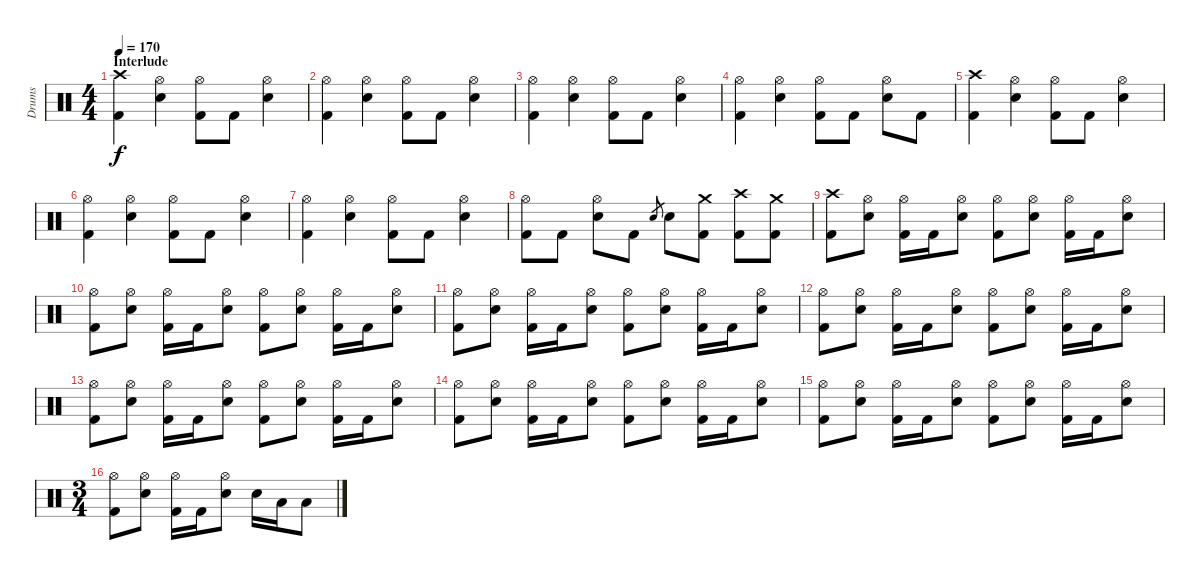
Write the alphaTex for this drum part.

\track ("Drums" "Drums") {instrument percussion}
\staff {score}
\articulation defaults
\ts (4 4)
\section ("" "Interlude")
\tempo 170
\clef neutral
\ks c
("Crash high (hit)" "Kick (hit) 2").4{dy f} ("Hi-Hat (open)" "Electric Snare (hit)").4 ("Hi-Hat (open)" "Kick (hit) 2").8 "Kick (hit) 2".8 ("Hi-Hat (open)" "Electric Snare (hit)").4 |
("Hi-Hat (open)" "Kick (hit) 2").4 ("Hi-Hat (open)" "Electric Snare (hit)").4 ("Hi-Hat (open)" "Kick (hit) 2").8 "Kick (hit) 2".8 ("Hi-Hat (open)" "Electric Snare (hit)").4 |
("Hi-Hat (open)" "Kick (hit) 2").4 ("Hi-Hat (open)" "Electric Snare (hit)").4 ("Hi-Hat (open)" "Kick (hit) 2").8 "Kick (hit) 2".8 ("Hi-Hat (open)" "Electric Snare (hit)").4 |
("Hi-Hat (open)" "Kick (hit) 2").4 ("Hi-Hat (open)" "Electric Snare (hit)").4 ("Hi-Hat (open)" "Kick (hit) 2").8 "Kick (hit) 2".8 ("Hi-Hat (open)" "Electric Snare (hit)").8 "Kick (hit) 2".8 |
("Crash high (hit)" "Kick (hit) 2").4 ("Hi-Hat (open)" "Electric Snare (hit)").4 ("Hi-Hat (open)" "Kick (hit) 2").8 "Kick (hit) 2".8 ("Hi-Hat (open)" "Electric Snare (hit)").4 |
("Hi-Hat (open)" "Kick (hit) 2").4 ("Hi-Hat (open)" "Electric Snare (hit)").4 ("Hi-Hat (open)" "Kick (hit) 2").8 "Kick (hit) 2".8 ("Hi-Hat (open)" "Electric Snare (hit)").4 |
("Hi-Hat (open)" "Kick (hit) 2").4 ("Hi-Hat (open)" "Electric Snare (hit)").4 ("Hi-Hat (open)" "Kick (hit) 2").8 "Kick (hit) 2".8 ("Hi-Hat (open)" "Electric Snare (hit)").4 |
("Hi-Hat (open)" "Kick (hit) 2").8 "Kick (hit) 2".8 ("Hi-Hat (open)" "Electric Snare (hit)").8 "Kick (hit) 2".8 "Electric Snare (hit)".8{gr} "Electric Snare (hit)".8 ("Crash medium (hit)" "Kick (hit) 2").8 ("Crash high (hit)" "Kick (hit) 2").8 ("Crash medium (hit)" "Kick (hit) 2").8 |
("Crash high (hit)" "Kick (hit) 2").8 ("Hi-Hat (open)" "Electric Snare (hit)").8 ("Hi-Hat (open)" "Kick (hit) 2").16 "Kick (hit) 2".16 ("Hi-Hat (open)" "Electric Snare (hit)").8 ("Hi-Hat (open)" "Kick (hit) 2").8 ("Hi-Hat (open)" "Electric Snare (hit)").8 ("Hi-Hat (open)" "Kick (hit) 2").16 "Kick (hit) 2".16 ("Hi-Hat (open)" "Electric Snare (hit)").8 |
("Hi-Hat (open)" "Kick (hit) 2").8 ("Hi-Hat (open)" "Electric Snare (hit)").8 ("Hi-Hat (open)" "Kick (hit) 2").16 "Kick (hit) 2".16 ("Hi-Hat (open)" "Electric Snare (hit)").8 ("Hi-Hat (open)" "Kick (hit) 2").8 ("Hi-Hat (open)" "Electric Snare (hit)").8 ("Hi-Hat (open)" "Kick (hit) 2").16 "Kick (hit) 2".16 ("Hi-Hat (open)" "Electric Snare (hit)").8 |
("Hi-Hat (open)" "Kick (hit) 2").8 ("Hi-Hat (open)" "Electric Snare (hit)").8 ("Hi-Hat (open)" "Kick (hit) 2").16 "Kick (hit) 2".16 ("Hi-Hat (open)" "Electric Snare (hit)").8 ("Hi-Hat (open)" "Kick (hit) 2").8 ("Hi-Hat (open)" "Electric Snare (hit)").8 ("Hi-Hat (open)" "Kick (hit) 2").16 "Kick (hit) 2".16 ("Hi-Hat (open)" "Electric Snare (hit)").8 |
("Hi-Hat (open)" "Kick (hit) 2").8 ("Hi-Hat (open)" "Electric Snare (hit)").8 ("Hi-Hat (open)" "Kick (hit) 2").16 "Kick (hit) 2".16 ("Hi-Hat (open)" "Electric Snare (hit)").8 ("Hi-Hat (open)" "Kick (hit) 2").8 ("Hi-Hat (open)" "Electric Snare (hit)").8 ("Hi-Hat (open)" "Kick (hit) 2").16 "Kick (hit) 2".16 ("Hi-Hat (open)" "Electric Snare (hit)").8 |
("Hi-Hat (open)" "Kick (hit) 2").8 ("Hi-Hat (open)" "Electric Snare (hit)").8 ("Hi-Hat (open)" "Kick (hit) 2").16 "Kick (hit) 2".16 ("Hi-Hat (open)" "Electric Snare (hit)").8 ("Hi-Hat (open)" "Kick (hit) 2").8 ("Hi-Hat (open)" "Electric Snare (hit)").8 ("Hi-Hat (open)" "Kick (hit) 2").16 "Kick (hit) 2".16 ("Hi-Hat (open)" "Electric Snare (hit)").8 |
("Hi-Hat (open)" "Kick (hit) 2").8 ("Hi-Hat (open)" "Electric Snare (hit)").8 ("Hi-Hat (open)" "Kick (hit) 2").16 "Kick (hit) 2".16 ("Hi-Hat (open)" "Electric Snare (hit)").8 ("Hi-Hat (open)" "Kick (hit) 2").8 ("Hi-Hat (open)" "Electric Snare (hit)").8 ("Hi-Hat (open)" "Kick (hit) 2").16 "Kick (hit) 2".16 ("Hi-Hat (open)" "Electric Snare (hit)").8 |
("Hi-Hat (open)" "Kick (hit) 2").8 ("Hi-Hat (open)" "Electric Snare (hit)").8 ("Hi-Hat (open)" "Kick (hit) 2").16 "Kick (hit) 2".16 ("Hi-Hat (open)" "Electric Snare (hit)").8 ("Hi-Hat (open)" "Kick (hit) 2").8 ("Hi-Hat (open)" "Electric Snare (hit)").8 ("Hi-Hat (open)" "Kick (hit) 2").16 "Kick (hit) 2".16 ("Hi-Hat (open)" "Electric Snare (hit)").8 |
\ts (3 4)
("Hi-Hat (open)" "Kick (hit) 2").8 ("Hi-Hat (open)" "Electric Snare (hit)").8 ("Hi-Hat (open)" "Kick (hit) 2").16 "Kick (hit) 2".16 ("Hi-Hat (open)" "Electric Snare (hit)").8 "Electric Snare (hit)".16 "Low Tom (hit)".16 "Low Floor Tom (hit)".8
